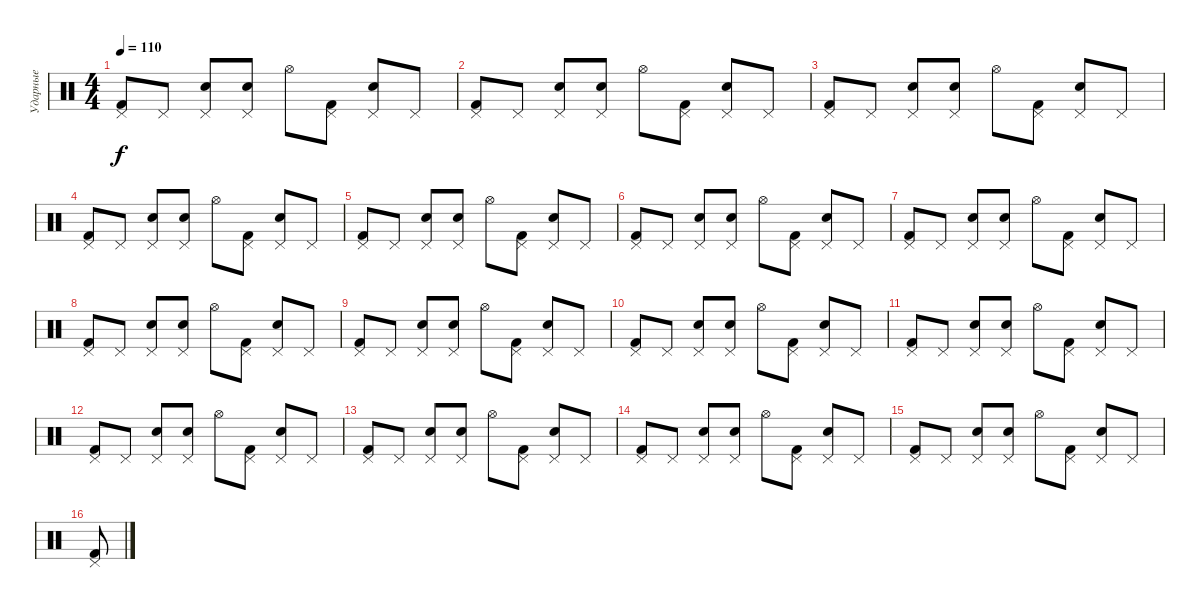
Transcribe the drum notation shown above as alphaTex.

\track ("Ударные" "Ударные") {instrument percussion}
\staff {score}
\articulation defaults
\ts (4 4)
\tempo 110
\clef neutral
\ks c
("Kick (hit) 2" "Pedal Hi-Hat (hit)").8{dy f} "Pedal Hi-Hat (hit)".8 ("Snare (hit) 2" "Pedal Hi-Hat (hit)").8 ("Snare (hit) 2" "Pedal Hi-Hat (hit)").8 "Hi-Hat (open)".8 ("Kick (hit) 2" "Pedal Hi-Hat (hit)").8 ("Snare (hit) 2" "Pedal Hi-Hat (hit)").8 "Pedal Hi-Hat (hit)".8 |
("Kick (hit) 2" "Pedal Hi-Hat (hit)").8 "Pedal Hi-Hat (hit)".8 ("Snare (hit) 2" "Pedal Hi-Hat (hit)").8 ("Snare (hit) 2" "Pedal Hi-Hat (hit)").8 "Hi-Hat (open)".8 ("Kick (hit) 2" "Pedal Hi-Hat (hit)").8 ("Snare (hit) 2" "Pedal Hi-Hat (hit)").8 "Pedal Hi-Hat (hit)".8 |
("Kick (hit) 2" "Pedal Hi-Hat (hit)").8 "Pedal Hi-Hat (hit)".8 ("Snare (hit) 2" "Pedal Hi-Hat (hit)").8 ("Snare (hit) 2" "Pedal Hi-Hat (hit)").8 "Hi-Hat (open)".8 ("Kick (hit) 2" "Pedal Hi-Hat (hit)").8 ("Snare (hit) 2" "Pedal Hi-Hat (hit)").8 "Pedal Hi-Hat (hit)".8 |
("Kick (hit) 2" "Pedal Hi-Hat (hit)").8 "Pedal Hi-Hat (hit)".8 ("Snare (hit) 2" "Pedal Hi-Hat (hit)").8 ("Snare (hit) 2" "Pedal Hi-Hat (hit)").8 "Hi-Hat (open)".8 ("Kick (hit) 2" "Pedal Hi-Hat (hit)").8 ("Snare (hit) 2" "Pedal Hi-Hat (hit)").8 "Pedal Hi-Hat (hit)".8 |
("Kick (hit) 2" "Pedal Hi-Hat (hit)").8 "Pedal Hi-Hat (hit)".8 ("Snare (hit) 2" "Pedal Hi-Hat (hit)").8 ("Snare (hit) 2" "Pedal Hi-Hat (hit)").8 "Hi-Hat (open)".8 ("Kick (hit) 2" "Pedal Hi-Hat (hit)").8 ("Snare (hit) 2" "Pedal Hi-Hat (hit)").8 "Pedal Hi-Hat (hit)".8 |
("Kick (hit) 2" "Pedal Hi-Hat (hit)").8 "Pedal Hi-Hat (hit)".8 ("Snare (hit) 2" "Pedal Hi-Hat (hit)").8 ("Snare (hit) 2" "Pedal Hi-Hat (hit)").8 "Hi-Hat (open)".8 ("Kick (hit) 2" "Pedal Hi-Hat (hit)").8 ("Snare (hit) 2" "Pedal Hi-Hat (hit)").8 "Pedal Hi-Hat (hit)".8 |
("Kick (hit) 2" "Pedal Hi-Hat (hit)").8 "Pedal Hi-Hat (hit)".8 ("Snare (hit) 2" "Pedal Hi-Hat (hit)").8 ("Snare (hit) 2" "Pedal Hi-Hat (hit)").8 "Hi-Hat (open)".8 ("Kick (hit) 2" "Pedal Hi-Hat (hit)").8 ("Snare (hit) 2" "Pedal Hi-Hat (hit)").8 "Pedal Hi-Hat (hit)".8 |
("Kick (hit) 2" "Pedal Hi-Hat (hit)").8 "Pedal Hi-Hat (hit)".8 ("Snare (hit) 2" "Pedal Hi-Hat (hit)").8 ("Snare (hit) 2" "Pedal Hi-Hat (hit)").8 "Hi-Hat (open)".8 ("Kick (hit) 2" "Pedal Hi-Hat (hit)").8 ("Snare (hit) 2" "Pedal Hi-Hat (hit)").8 "Pedal Hi-Hat (hit)".8 |
("Kick (hit) 2" "Pedal Hi-Hat (hit)").8 "Pedal Hi-Hat (hit)".8 ("Snare (hit) 2" "Pedal Hi-Hat (hit)").8 ("Snare (hit) 2" "Pedal Hi-Hat (hit)").8 "Hi-Hat (open)".8 ("Kick (hit) 2" "Pedal Hi-Hat (hit)").8 ("Snare (hit) 2" "Pedal Hi-Hat (hit)").8 "Pedal Hi-Hat (hit)".8 |
("Kick (hit) 2" "Pedal Hi-Hat (hit)").8 "Pedal Hi-Hat (hit)".8 ("Snare (hit) 2" "Pedal Hi-Hat (hit)").8 ("Snare (hit) 2" "Pedal Hi-Hat (hit)").8 "Hi-Hat (open)".8 ("Kick (hit) 2" "Pedal Hi-Hat (hit)").8 ("Snare (hit) 2" "Pedal Hi-Hat (hit)").8 "Pedal Hi-Hat (hit)".8 |
("Kick (hit) 2" "Pedal Hi-Hat (hit)").8 "Pedal Hi-Hat (hit)".8 ("Snare (hit) 2" "Pedal Hi-Hat (hit)").8 ("Snare (hit) 2" "Pedal Hi-Hat (hit)").8 "Hi-Hat (open)".8 ("Kick (hit) 2" "Pedal Hi-Hat (hit)").8 ("Snare (hit) 2" "Pedal Hi-Hat (hit)").8 "Pedal Hi-Hat (hit)".8 |
("Kick (hit) 2" "Pedal Hi-Hat (hit)").8 "Pedal Hi-Hat (hit)".8 ("Snare (hit) 2" "Pedal Hi-Hat (hit)").8 ("Snare (hit) 2" "Pedal Hi-Hat (hit)").8 "Hi-Hat (open)".8 ("Kick (hit) 2" "Pedal Hi-Hat (hit)").8 ("Snare (hit) 2" "Pedal Hi-Hat (hit)").8 "Pedal Hi-Hat (hit)".8 |
("Kick (hit) 2" "Pedal Hi-Hat (hit)").8 "Pedal Hi-Hat (hit)".8 ("Snare (hit) 2" "Pedal Hi-Hat (hit)").8 ("Snare (hit) 2" "Pedal Hi-Hat (hit)").8 "Hi-Hat (open)".8 ("Kick (hit) 2" "Pedal Hi-Hat (hit)").8 ("Snare (hit) 2" "Pedal Hi-Hat (hit)").8 "Pedal Hi-Hat (hit)".8 |
("Kick (hit) 2" "Pedal Hi-Hat (hit)").8 "Pedal Hi-Hat (hit)".8 ("Snare (hit) 2" "Pedal Hi-Hat (hit)").8 ("Snare (hit) 2" "Pedal Hi-Hat (hit)").8 "Hi-Hat (open)".8 ("Kick (hit) 2" "Pedal Hi-Hat (hit)").8 ("Snare (hit) 2" "Pedal Hi-Hat (hit)").8 "Pedal Hi-Hat (hit)".8 |
("Kick (hit) 2" "Pedal Hi-Hat (hit)").8 "Pedal Hi-Hat (hit)".8 ("Snare (hit) 2" "Pedal Hi-Hat (hit)").8 ("Snare (hit) 2" "Pedal Hi-Hat (hit)").8 "Hi-Hat (open)".8 ("Kick (hit) 2" "Pedal Hi-Hat (hit)").8 ("Snare (hit) 2" "Pedal Hi-Hat (hit)").8 "Pedal Hi-Hat (hit)".8 |
("Kick (hit) 2" "Pedal Hi-Hat (hit)").8
